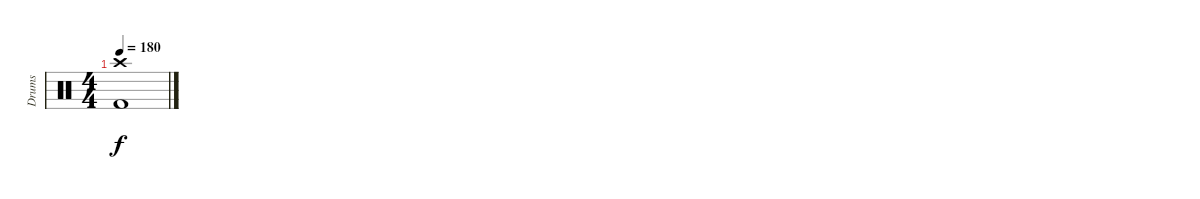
\track ("Drums" "Drums") {instrument percussion}
\staff {score}
\articulation defaults
\ts (4 4)
\tempo 180
\clef neutral
\ks c
("Crash high (hit)" "Kick (hit) 2").1{dy f}
